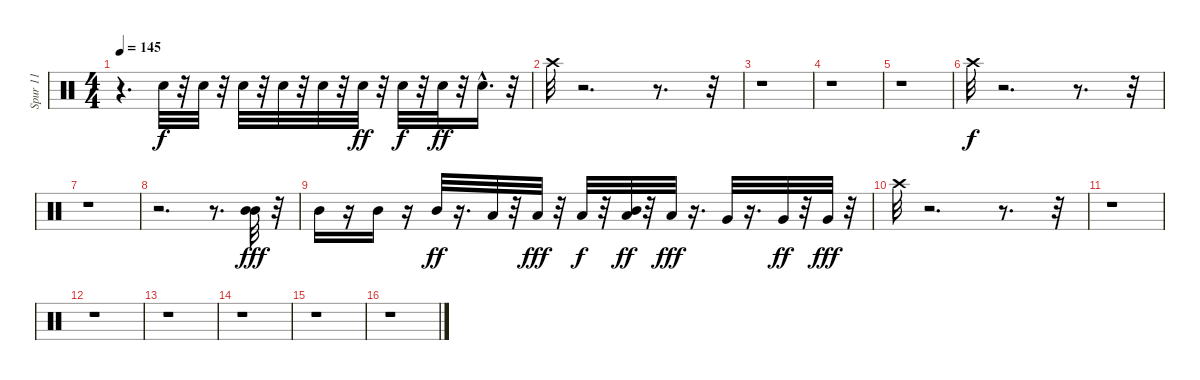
\track ("Spur 11" "Spur 11") {instrument percussion}
\staff {score}
\articulation defaults
\ts (4 4)
\tempo 145
\clef neutral
\ks c
r.4{d dy fff} "Electric Snare (hit)".32{dy f} r.32 "Electric Snare (hit)".32 r.32 "Electric Snare (hit)".32 r.32 "Electric Snare (hit)".32 r.32 "Electric Snare (hit)".32 r.32 "Electric Snare (hit)".32{dy ff} r.32 "Electric Snare (hit)".32{dy f} r.32 "Electric Snare (hit)".32{dy ff} r.32 "Electric Snare (hit)"{hac}.16{d} r.32 |
"Crash high (hit)".32 r.2{d} r.8{d} r.32 |
r.1 |
r.1 |
r.1 |
"Crash high (hit)".32{dy f} r.2{d} r.8{d} r.32 |
r.1 |
r.2{d} r.8{d} ("Mid Tom (hit)" "Mid Tom (hit)").32{dy fff} r.32 |
"Mid Tom (hit)".16 r.16 "Mid Tom (hit)".16 r.16 "Mid Tom (hit)".32{dy ff} r.16{d} "Low Tom (hit)".32 r.32 "Low Tom (hit)".32{dy fff} r.32 "Low Tom (hit)".32{dy f} r.32 ("Low Tom (hit)" "Mid Tom (hit)").32{dy ff} r.32 "Low Tom (hit)".32{dy fff} r.16{d} "Very Low Tom (hit)".32 r.16{d} "Very Low Tom (hit)".32{dy ff} r.32 "Very Low Tom (hit)".32{dy fff} r.32 |
"Crash high (hit)".32 r.2{d} r.8{d} r.32 |
r.1 |
r.1 |
r.1 |
r.1 |
r.1 |
r.1
